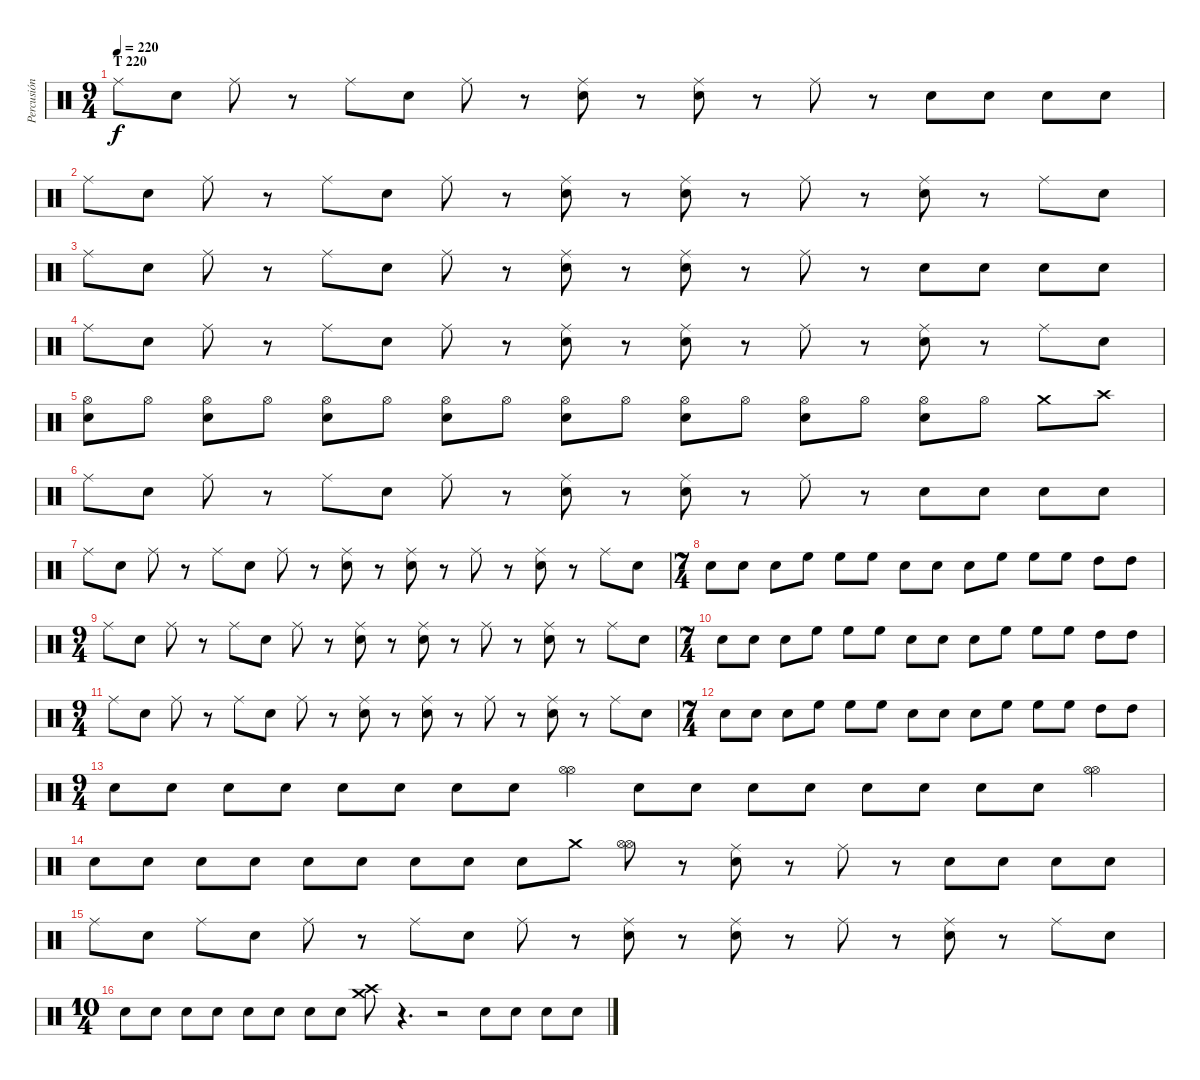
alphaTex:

\track ("Percusión - Compa" "Percusión ") {instrument percussion}
\staff {score}
\articulation defaults
\ts (9 4)
\section ("" "T 220")
\tempo 220
\clef neutral
\ks c "Ride (middle)".8{dy f} "Electric Snare (hit)".8 "Ride (middle)".8
r.8 "Ride (middle)".8 "Electric Snare (hit)".8 "Ride (middle)".8 r.8 ("Ride (middle)" "Electric Snare (hit)").8 r.8 ("Ride (middle)" "Electric Snare (hit)").8 r.8 "Ride (middle)".8 r.8 "Electric Snare (hit)".8 "Electric Snare (hit)".8 "Electric Snare (hit)".8 "Electric Snare (hit)".8 |
"Ride (middle)".8 "Electric Snare (hit)".8 "Ride (middle)".8 r.8 "Ride (middle)".8 "Electric Snare (hit)".8 "Ride (middle)".8 r.8 ("Ride (middle)" "Electric Snare (hit)").8 r.8 ("Ride (middle)" "Electric Snare (hit)").8 r.8 "Ride (middle)".8 r.8 ("Ride (middle)" "Electric Snare (hit)").8 r.8 "Ride (middle)".8 "Electric Snare (hit)".8 |
"Ride (middle)".8 "Electric Snare (hit)".8 "Ride (middle)".8 r.8 "Ride (middle)".8 "Electric Snare (hit)".8 "Ride (middle)".8 r.8 ("Ride (middle)" "Electric Snare (hit)").8 r.8 ("Ride (middle)" "Electric Snare (hit)").8 r.8 "Ride (middle)".8 r.8 "Electric Snare (hit)".8 "Electric Snare (hit)".8 "Electric Snare (hit)".8 "Electric Snare (hit)".8 |
"Ride (middle)".8 "Electric Snare (hit)".8 "Ride (middle)".8 r.8 "Ride (middle)".8 "Electric Snare (hit)".8 "Ride (middle)".8 r.8 ("Ride (middle)" "Electric Snare (hit)").8 r.8 ("Ride (middle)" "Electric Snare (hit)").8 r.8 "Ride (middle)".8 r.8 ("Ride (middle)" "Electric Snare (hit)").8 r.8 "Ride (middle)".8 "Electric Snare (hit)".8 |
("Hi-Hat (open)" "Electric Snare (hit)").8 "Hi-Hat (open)".8 ("Hi-Hat (open)" "Electric Snare (hit)").8 "Hi-Hat (open)".8 ("Hi-Hat (open)" "Electric Snare (hit)").8 "Hi-Hat (open)".8 ("Hi-Hat (open)" "Electric Snare (hit)").8 "Hi-Hat (open)".8 ("Hi-Hat (open)" "Electric Snare (hit)").8 "Hi-Hat (open)".8 ("Hi-Hat (open)" "Electric Snare (hit)").8 "Hi-Hat (open)".8 ("Hi-Hat (open)" "Electric Snare (hit)").8 "Hi-Hat (open)".8 ("Hi-Hat (open)" "Electric Snare (hit)").8 "Hi-Hat (open)".8 "Crash medium (hit)".8 "Crash high (hit)".8 |
"Ride (middle)".8 "Electric Snare (hit)".8 "Ride (middle)".8 r.8 "Ride (middle)".8 "Electric Snare (hit)".8 "Ride (middle)".8 r.8 ("Ride (middle)" "Electric Snare (hit)").8 r.8 ("Ride (middle)" "Electric Snare (hit)").8 r.8 "Ride (middle)".8 r.8 "Electric Snare (hit)".8 "Electric Snare (hit)".8 "Electric Snare (hit)".8 "Electric Snare (hit)".8 |
"Ride (middle)".8 "Electric Snare (hit)".8 "Ride (middle)".8 r.8 "Ride (middle)".8 "Electric Snare (hit)".8 "Ride (middle)".8 r.8 ("Ride (middle)" "Electric Snare (hit)").8 r.8 ("Ride (middle)" "Electric Snare (hit)").8 r.8 "Ride (middle)".8 r.8 ("Ride (middle)" "Electric Snare (hit)").8 r.8 "Ride (middle)".8 "Electric Snare (hit)".8 |
\ts (7 4)
"Electric Snare (hit)".8 "Electric Snare (hit)".8 "Electric Snare (hit)".8 "High Floor Tom (hit)".8 "High Floor Tom (hit)".8 "High Floor Tom (hit)".8 "Electric Snare (hit)".8 "Electric Snare (hit)".8 "Electric Snare (hit)".8 "High Floor Tom (hit)".8 "High Floor Tom (hit)".8 "High Floor Tom (hit)".8 "High Tom (hit)".8 "High Tom (hit)".8 |
\ts (9 4)
"Ride (middle)".8 "Electric Snare (hit)".8 "Ride (middle)".8 r.8 "Ride (middle)".8 "Electric Snare (hit)".8 "Ride (middle)".8 r.8 ("Ride (middle)" "Electric Snare (hit)").8 r.8 ("Ride (middle)" "Electric Snare (hit)").8 r.8 "Ride (middle)".8 r.8 ("Ride (middle)" "Electric Snare (hit)").8 r.8 "Ride (middle)".8 "Electric Snare (hit)".8 |
\ts (7 4)
"Electric Snare (hit)".8 "Electric Snare (hit)".8 "Electric Snare (hit)".8 "High Floor Tom (hit)".8 "High Floor Tom (hit)".8 "High Floor Tom (hit)".8 "Electric Snare (hit)".8 "Electric Snare (hit)".8 "Electric Snare (hit)".8 "High Floor Tom (hit)".8 "High Floor Tom (hit)".8 "High Floor Tom (hit)".8 "High Tom (hit)".8 "High Tom (hit)".8 |
\ts (9 4)
"Ride (middle)".8 "Electric Snare (hit)".8 "Ride (middle)".8 r.8 "Ride (middle)".8 "Electric Snare (hit)".8 "Ride (middle)".8 r.8 ("Ride (middle)" "Electric Snare (hit)").8 r.8 ("Ride (middle)" "Electric Snare (hit)").8 r.8 "Ride (middle)".8 r.8 ("Ride (middle)" "Electric Snare (hit)").8 r.8 "Ride (middle)".8 "Electric Snare (hit)".8 |
\ts (7 4)
"Electric Snare (hit)".8 "Electric Snare (hit)".8 "Electric Snare (hit)".8 "High Floor Tom (hit)".8 "High Floor Tom (hit)".8 "High Floor Tom (hit)".8 "Electric Snare (hit)".8 "Electric Snare (hit)".8 "Electric Snare (hit)".8 "High Floor Tom (hit)".8 "High Floor Tom (hit)".8 "High Floor Tom (hit)".8 "High Tom (hit)".8 "High Tom (hit)".8 |
\ts (9 4)
"Electric Snare (hit)".8 "Electric Snare (hit)".8 "Electric Snare (hit)".8 "Electric Snare (hit)".8 "Electric Snare (hit)".8 "Electric Snare (hit)".8 "Electric Snare (hit)".8 "Electric Snare (hit)".8 ("Hi-Hat (open)" "Hi-Hat (open)").4 "Electric Snare (hit)".8 "Electric Snare (hit)".8 "Electric Snare (hit)".8 "Electric Snare (hit)".8 "Electric Snare (hit)".8 "Electric Snare (hit)".8 "Electric Snare (hit)".8 "Electric Snare (hit)".8 ("Hi-Hat (open)" "Hi-Hat (open)").4 |
"Electric Snare (hit)".8 "Electric Snare (hit)".8 "Electric Snare (hit)".8 "Electric Snare (hit)".8 "Electric Snare (hit)".8 "Electric Snare (hit)".8 "Electric Snare (hit)".8 "Electric Snare (hit)".8 "Electric Snare (hit)".8 "Crash medium (hit)".8 ("Hi-Hat (open)" "Hi-Hat (open)").8 r.8 ("Ride (middle)" "Electric Snare (hit)").8 r.8 "Ride (middle)".8 r.8 "Electric Snare (hit)".8 "Electric Snare (hit)".8 "Electric Snare (hit)".8 "Electric Snare (hit)".8 |
"Ride (middle)".8 "Electric Snare (hit)".8 "Ride (middle)".8 "Electric Snare (hit)".8 "Ride (middle)".8 r.8 "Ride (middle)".8 "Electric Snare (hit)".8 "Ride (middle)".8 r.8 ("Ride (middle)" "Electric Snare (hit)").8 r.8 ("Ride (middle)" "Electric Snare (hit)").8 r.8 "Ride (middle)".8 r.8 ("Ride (middle)" "Electric Snare (hit)").8 r.8 "Ride (middle)".8 "Electric Snare (hit)".8 |
\ts (10 4)
"Electric Snare (hit)".8 "Electric Snare (hit)".8 "Electric Snare (hit)".8 "Electric Snare (hit)".8 "Electric Snare (hit)".8 "Electric Snare (hit)".8 "Electric Snare (hit)".8 "Electric Snare (hit)".8 ("Crash medium (hit)" "Crash high (hit)").8 r.4{d} r.2 "Electric Snare (hit)".8 "Electric Snare (hit)".8 "Electric Snare (hit)".8 "Electric Snare (hit)".8
